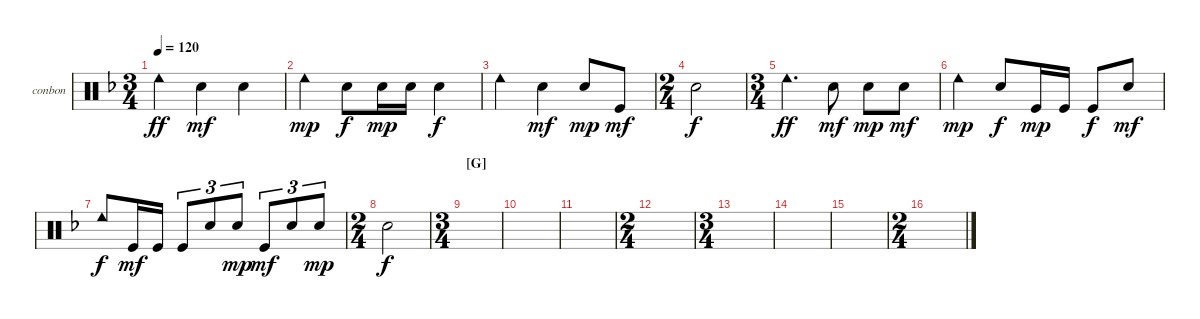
\defaultSystemsLayout 4
\bracketExtendMode groupsimilarinstruments
\firstSystemTrackNameOrientation horizontal
\otherSystemsTrackNameOrientation horizontal
\track ("Bongos N Congas" "conbon") {instrument percussion}
\staff {score}
\articulation defaults
\ts (3 4)
\tempo 120
\clef neutral
\ks f "Cowbell low (hit)".4{dy ff} "Snare (hit) 2".4{dy mf} "Snare (hit) 2".4
|
"Cowbell low (hit)".4{dy mp} "Snare (hit) 2".8{dy f} "Snare (hit) 2".16{dy mp} "Snare (hit) 2".16 "Snare (hit) 2".4{dy f} |
"Cowbell low (hit)".4 "Snare (hit) 2".4{dy mf} "Snare (hit) 2".8{dy mp} "Kick (hit)".8{dy mf} |
\ts (2 4)
"Snare (hit) 2".2{dy f} |
\ts (3 4)
"Cowbell low (hit)".4{d dy ff} "Snare (hit) 2".8{dy mf} "Snare (hit) 2".8{dy mp} "Snare (hit) 2".8{dy mf} |
"Cowbell low (hit)".4{dy mp} "Snare (hit) 2".8{dy f} "Kick (hit)".16{dy mp} "Kick (hit)".16 "Kick (hit)".8{dy f} "Snare (hit) 2".8{dy mf} |
"Cowbell low (hit)".8{dy f} "Kick (hit)".16{dy mf} "Kick (hit)".16 "Kick (hit)".8{tu (3 2)} "Snare (hit) 2".8{tu (3 2)} "Snare (hit) 2".8{tu (3 2) dy mp} "Kick (hit)".8{tu (3 2) dy mf} "Snare (hit) 2".8{tu (3 2)} "Snare (hit) 2".8{tu (3 2) dy mp} |
\ts (2 4)
"Snare (hit) 2".2{dy f} |
\ts (3 4)
\section ("G" "")
|
|
|
\ts (2 4)
|
\ts (3 4)
|
|
|
\ts (2 4)
